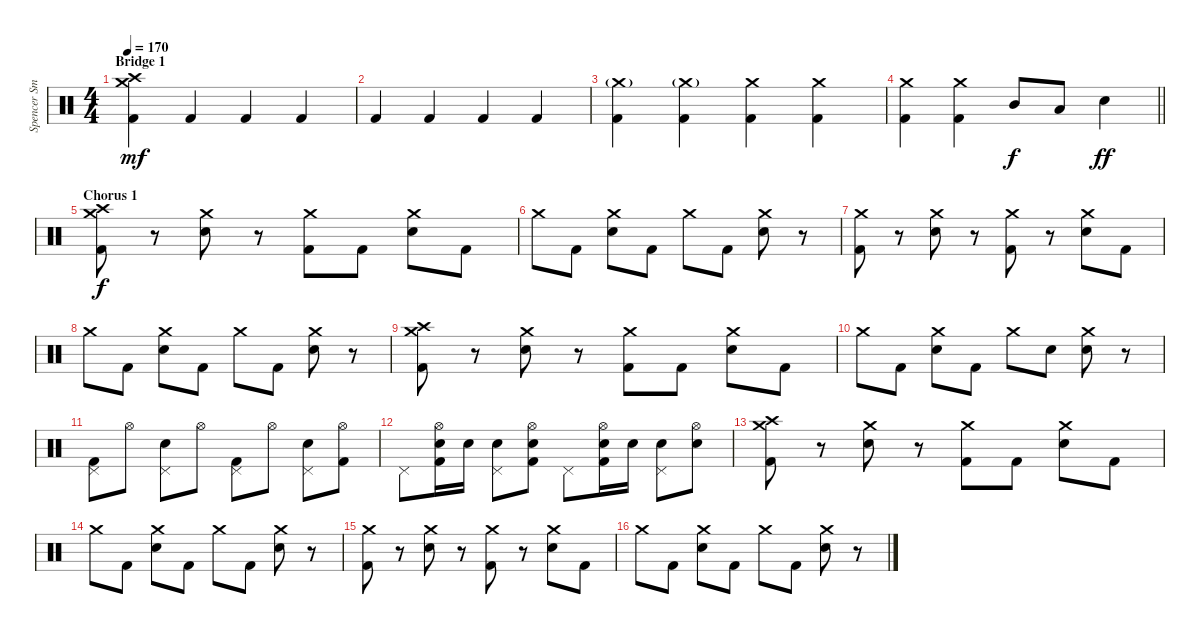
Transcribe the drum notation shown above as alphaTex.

\track ("Spencer Smith (Drums)" "Spencer Sm") {instrument percussion}
\staff {score}
\articulation defaults
\ts (4 4)
\section ("" "Bridge 1")
\tempo 170
\clef neutral
\ks c
("Crash high (hit)" "Crash medium (hit)" "Kick (hit) 2").4{dy mf} "Kick (hit) 2".4 "Kick (hit) 2".4 "Kick (hit) 2".4 |
"Kick (hit) 2".4 "Kick (hit) 2".4 "Kick (hit) 2".4 "Kick (hit) 2".4 |
("Crash medium (hit)"{g} "Kick (hit) 2").4 ("Crash medium (hit)"{g} "Kick (hit) 2").4 ("Crash medium (hit)" "Kick (hit) 2").4 ("Crash medium (hit)" "Kick (hit) 2").4 |
\barLineRight lightlight
("Crash medium (hit)" "Kick (hit) 2").4 ("Crash medium (hit)" "Kick (hit) 2").4 "Mid Tom (hit)".8{dy f} "Low Tom (hit)".8 "Electric Snare (hit)".4{dy ff} |
\section ("" "Chorus 1")
("Crash medium (hit)" "Crash high (hit)" "Kick (hit) 2").8{dy f} r.8 ("Crash medium (hit)" "Electric Snare (hit)").8 r.8 ("Crash medium (hit)" "Kick (hit) 2").8 "Kick (hit) 2".8 ("Crash medium (hit)" "Electric Snare (hit)").8 "Kick (hit) 2".8 |
"Crash medium (hit)".8 "Kick (hit) 2".8 ("Crash medium (hit)" "Electric Snare (hit)").8 "Kick (hit) 2".8 "Crash medium (hit)".8 "Kick (hit) 2".8 ("Crash medium (hit)" "Electric Snare (hit)").8 r.8 |
("Crash medium (hit)" "Kick (hit) 2").8 r.8 ("Crash medium (hit)" "Electric Snare (hit)").8 r.8 ("Crash medium (hit)" "Kick (hit) 2").8 r.8 ("Crash medium (hit)" "Electric Snare (hit)").8 "Kick (hit) 2".8 |
"Crash medium (hit)".8 "Kick (hit) 2".8 ("Crash medium (hit)" "Electric Snare (hit)").8 "Kick (hit) 2".8 "Crash medium (hit)".8 "Kick (hit) 2".8 ("Crash medium (hit)" "Electric Snare (hit)").8 r.8 |
("Crash high (hit)" "Crash medium (hit)" "Kick (hit) 2").8 r.8 ("Crash medium (hit)" "Electric Snare (hit)").8 r.8 ("Crash medium (hit)" "Kick (hit) 2").8 "Kick (hit) 2".8 ("Crash medium (hit)" "Electric Snare (hit)").8 "Kick (hit) 2".8 |
"Crash medium (hit)".8 "Kick (hit) 2".8 ("Crash medium (hit)" "Electric Snare (hit)").8 "Kick (hit) 2".8 "Crash medium (hit)".8 "Electric Snare (hit)".8 ("Crash medium (hit)" "Electric Snare (hit)").8 r.8 |
("Pedal Hi-Hat (hit)" "Kick (hit) 2").8 "Hi-Hat (open)".8 ("Pedal Hi-Hat (hit)" "Electric Snare (hit)").8 "Hi-Hat (open)".8 ("Pedal Hi-Hat (hit)" "Kick (hit) 2").8 "Hi-Hat (open)".8 ("Pedal Hi-Hat (hit)" "Electric Snare (hit)").8 ("Hi-Hat (open)" "Kick (hit) 2").8 |
"Pedal Hi-Hat (hit)".8 ("Hi-Hat (open)" "Electric Snare (hit)" "Kick (hit) 2").16 "Electric Snare (hit)".16 ("Pedal Hi-Hat (hit)" "Electric Snare (hit)").8 ("Hi-Hat (open)" "Electric Snare (hit)" "Kick (hit) 2").8 "Pedal Hi-Hat (hit)".8 ("Hi-Hat (open)" "Electric Snare (hit)" "Kick (hit) 2").16 "Electric Snare (hit)".16 ("Pedal Hi-Hat (hit)" "Electric Snare (hit)").8 ("Hi-Hat (open)" "Electric Snare (hit)").8 |
("Crash medium (hit)" "Crash high (hit)" "Kick (hit) 2").8 r.8 ("Crash medium (hit)" "Electric Snare (hit)").8 r.8 ("Crash medium (hit)" "Kick (hit) 2").8 "Kick (hit) 2".8 ("Crash medium (hit)" "Electric Snare (hit)").8 "Kick (hit) 2".8 |
"Crash medium (hit)".8 "Kick (hit) 2".8 ("Crash medium (hit)" "Electric Snare (hit)").8 "Kick (hit) 2".8 "Crash medium (hit)".8 "Kick (hit) 2".8 ("Crash medium (hit)" "Electric Snare (hit)").8 r.8 |
("Crash medium (hit)" "Kick (hit) 2").8 r.8 ("Crash medium (hit)" "Electric Snare (hit)").8 r.8 ("Crash medium (hit)" "Kick (hit) 2").8 r.8 ("Crash medium (hit)" "Electric Snare (hit)").8 "Kick (hit) 2".8 |
"Crash medium (hit)".8 "Kick (hit) 2".8 ("Crash medium (hit)" "Electric Snare (hit)").8 "Kick (hit) 2".8 "Crash medium (hit)".8 "Kick (hit) 2".8 ("Crash medium (hit)" "Electric Snare (hit)").8 r.8
